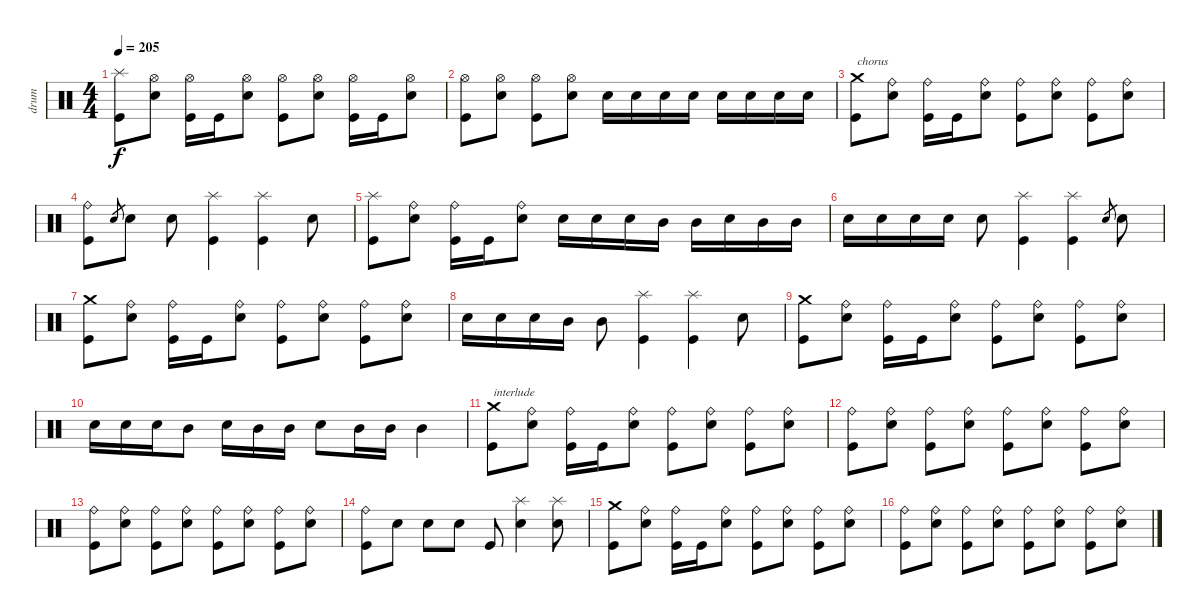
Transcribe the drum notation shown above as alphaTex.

\track ("drum" "drum") {instrument percussion}
\staff {score}
\articulation defaults
\ts (4 4)
\tempo 205
\clef neutral
\ks c
("Kick (hit)" "Splash (hit)").8{dy f} ("Electric Snare (hit)" "Hi-Hat (open)").8 ("Kick (hit)" "Hi-Hat (open)").16 "Kick (hit)".16 ("Electric Snare (hit)" "Hi-Hat (open)").8 ("Kick (hit)" "Hi-Hat (open)").8 ("Electric Snare (hit)" "Hi-Hat (open)").8 ("Kick (hit)" "Hi-Hat (open)").16 "Kick (hit)".16 ("Electric Snare (hit)" "Hi-Hat (open)").8 |
("Kick (hit)" "Hi-Hat (open)").8 ("Electric Snare (hit)" "Hi-Hat (open)").8 ("Kick (hit)" "Hi-Hat (open)").8 ("Electric Snare (hit)" "Hi-Hat (open)").8 "Electric Snare (hit)".16 "Electric Snare (hit)".16 "Electric Snare (hit)".16 "Electric Snare (hit)".16 "Electric Snare (hit)".16 "Electric Snare (hit)".16 "Electric Snare (hit)".16 "Electric Snare (hit)".16 |
("Kick (hit)" "Crash medium (hit)").8{txt "chorus"} ("Electric Snare (hit)" "Ride (bell)").8 ("Kick (hit)" "Ride (bell)").16 "Kick (hit)".16 ("Electric Snare (hit)" "Ride (bell)").8 ("Kick (hit)" "Ride (bell)").8 ("Electric Snare (hit)" "Ride (bell)").8 ("Kick (hit)" "Ride (bell)").8 ("Electric Snare (hit)" "Ride (bell)").8 |
("Kick (hit)" "Ride (bell)").8 "Electric Snare (hit)".8{gr} "Electric Snare (hit)".8 "Electric Snare (hit)".8 ("Kick (hit)" "Splash (hit)").4 ("Kick (hit)" "Splash (hit)").4 "Electric Snare (hit)".8 |
("Kick (hit)" "Splash (hit)").8 ("Electric Snare (hit)" "Ride (bell)").8 ("Kick (hit)" "Ride (bell)").16 "Kick (hit)".16 ("Electric Snare (hit)" "Ride (bell)").8 "Electric Snare (hit)".16 "Electric Snare (hit)".16 "Electric Snare (hit)".16 "Mid Tom (hit)".16 "Mid Tom (hit)".16 "Electric Snare (hit)".16 "Mid Tom (hit)".16 "Mid Tom (hit)".16 |
"Electric Snare (hit)".16 "Electric Snare (hit)".16 "Electric Snare (hit)".16 "Electric Snare (hit)".16 "Electric Snare (hit)".8 ("Kick (hit)" "Splash (hit)").4 ("Kick (hit)" "Splash (hit)").4 "Electric Snare (hit)".8{gr} "Electric Snare (hit)".8 |
("Kick (hit)" "Crash medium (hit)").8 ("Electric Snare (hit)" "Ride (bell)").8 ("Kick (hit)" "Ride (bell)").16 "Kick (hit)".16 ("Electric Snare (hit)" "Ride (bell)").8 ("Kick (hit)" "Ride (bell)").8 ("Electric Snare (hit)" "Ride (bell)").8 ("Kick (hit)" "Ride (bell)").8 ("Electric Snare (hit)" "Ride (bell)").8 |
"Electric Snare (hit)".16 "Electric Snare (hit)".16 "Electric Snare (hit)".16 "Mid Tom (hit)".16 "Mid Tom (hit)".8 ("Kick (hit)" "Splash (hit)").4 ("Kick (hit)" "Splash (hit)").4 "Electric Snare (hit)".8 |
("Kick (hit)" "Crash medium (hit)").8 ("Electric Snare (hit)" "Ride (bell)").8 ("Kick (hit)" "Ride (bell)").16 "Kick (hit)".16 ("Electric Snare (hit)" "Ride (bell)").8 ("Kick (hit)" "Ride (bell)").8 ("Electric Snare (hit)" "Ride (bell)").8 ("Kick (hit)" "Ride (bell)").8 ("Electric Snare (hit)" "Ride (bell)").8 |
"Electric Snare (hit)".16 "Electric Snare (hit)".16 "Electric Snare (hit)".16 "Mid Tom (hit)".8 "Electric Snare (hit)".16 "Mid Tom (hit)".16 "Mid Tom (hit)".16 "Electric Snare (hit)".8 "Mid Tom (hit)".16 "Mid Tom (hit)".16 "Mid Tom (hit)".4 |
("Kick (hit)" "Crash medium (hit)").8{txt "interlude"} ("Electric Snare (hit)" "Ride (bell)").8 ("Kick (hit)" "Ride (bell)").16 "Kick (hit)".16 ("Electric Snare (hit)" "Ride (bell)").8 ("Kick (hit)" "Ride (bell)").8 ("Electric Snare (hit)" "Ride (bell)").8 ("Kick (hit)" "Ride (bell)").8 ("Electric Snare (hit)" "Ride (bell)").8 |
("Kick (hit)" "Ride (bell)").8 ("Electric Snare (hit)" "Ride (bell)").8 ("Kick (hit)" "Ride (bell)").8 ("Electric Snare (hit)" "Ride (bell)").8 ("Kick (hit)" "Ride (bell)").8 ("Electric Snare (hit)" "Ride (bell)").8 ("Kick (hit)" "Ride (bell)").8 ("Electric Snare (hit)" "Ride (bell)").8 |
("Kick (hit)" "Ride (bell)").8 ("Electric Snare (hit)" "Ride (bell)").8 ("Kick (hit)" "Ride (bell)").8 ("Electric Snare (hit)" "Ride (bell)").8 ("Kick (hit)" "Ride (bell)").8 ("Electric Snare (hit)" "Ride (bell)").8 ("Kick (hit)" "Ride (bell)").8 ("Electric Snare (hit)" "Ride (bell)").8 |
("Kick (hit)" "Ride (bell)").8 "Electric Snare (hit)".8 "Electric Snare (hit)".8 "Electric Snare (hit)".8 "Kick (hit)".8 ("Electric Snare (hit)" "Splash (hit)").4 ("Electric Snare (hit)" "Splash (hit)").8 |
("Kick (hit)" "Crash medium (hit)").8 ("Electric Snare (hit)" "Ride (bell)").8 ("Kick (hit)" "Ride (bell)").16 "Kick (hit)".16 ("Electric Snare (hit)" "Ride (bell)").8 ("Kick (hit)" "Ride (bell)").8 ("Electric Snare (hit)" "Ride (bell)").8 ("Kick (hit)" "Ride (bell)").8 ("Electric Snare (hit)" "Ride (bell)").8 |
("Kick (hit)" "Ride (bell)").8 ("Electric Snare (hit)" "Ride (bell)").8 ("Kick (hit)" "Ride (bell)").8 ("Electric Snare (hit)" "Ride (bell)").8 ("Kick (hit)" "Ride (bell)").8 ("Electric Snare (hit)" "Ride (bell)").8 ("Kick (hit)" "Ride (bell)").8 ("Electric Snare (hit)" "Ride (bell)").8
